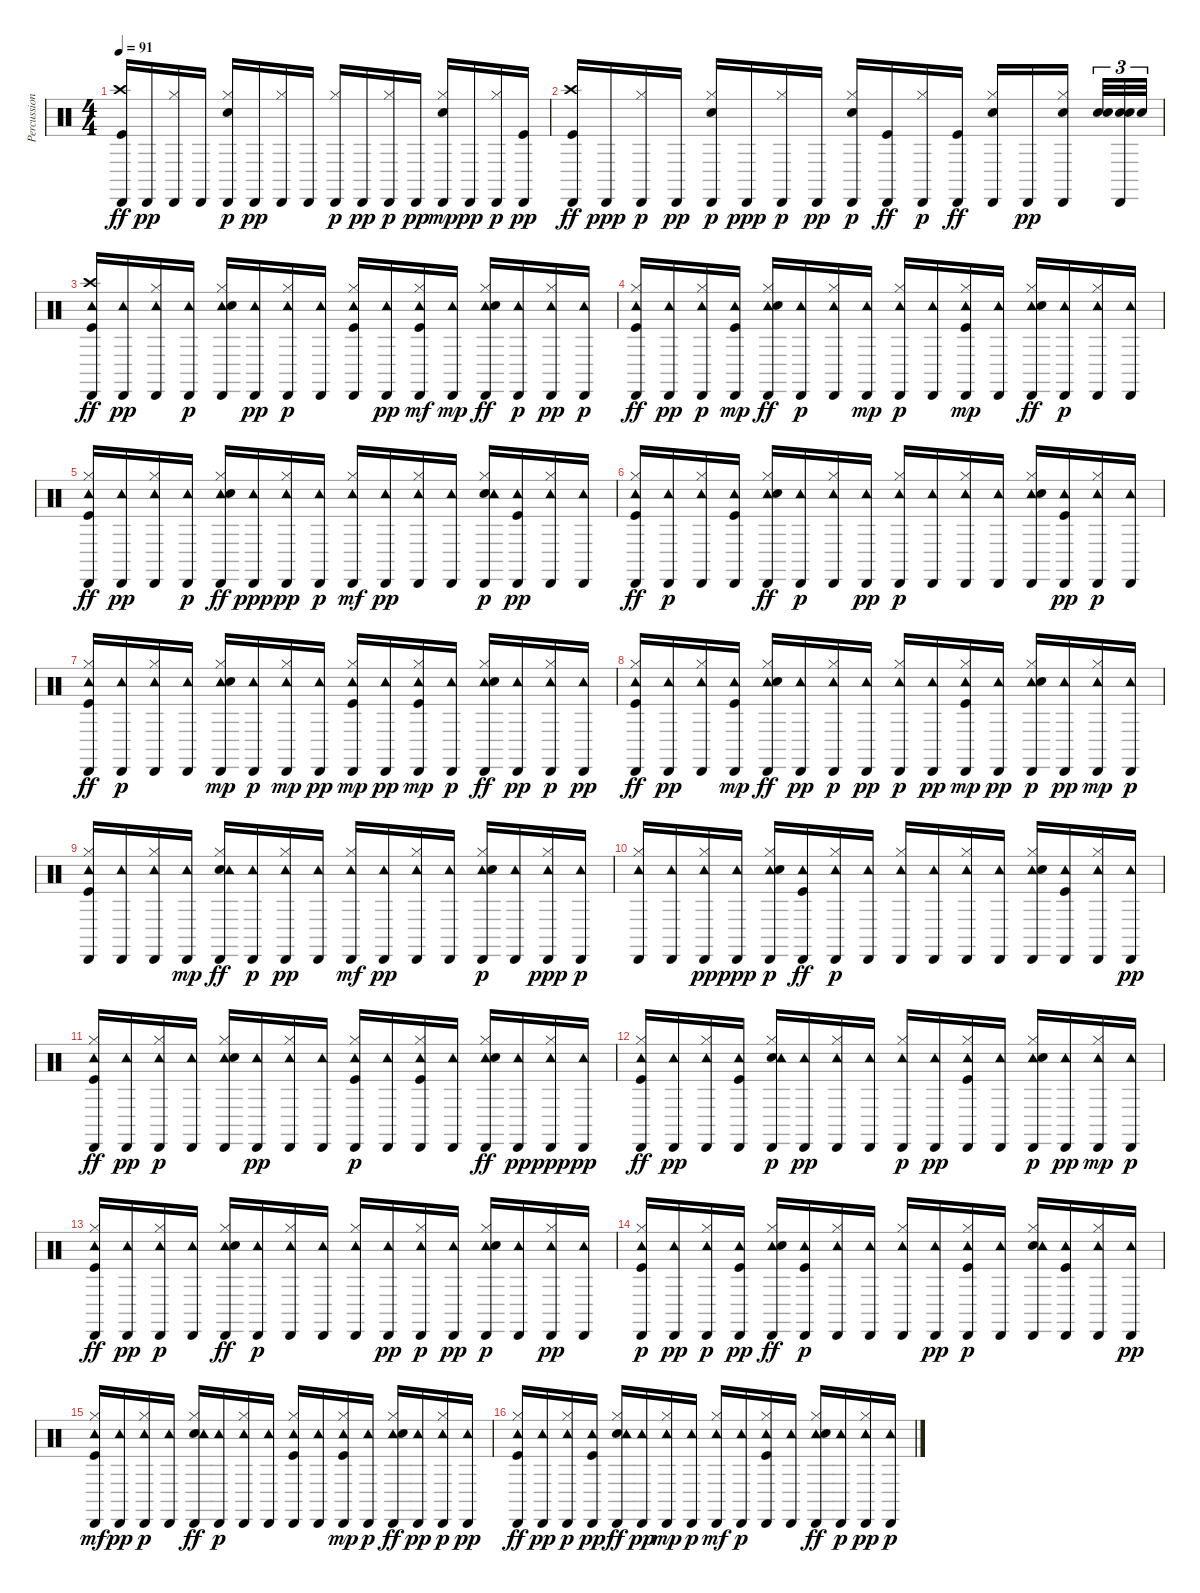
\track ("Percussion" "Percussion") {instrument percussion}
\staff {score}
\articulation defaults
\ts (4 4)
\tempo 91
\clef neutral
\ks c
("Crash high (hit)" "Cabasa (hit)" "Kick (hit)").16{dy ff} "Cabasa (hit)".16{dy pp} ("Cabasa (hit)" "Hi-Hat (closed)").16 "Cabasa (hit)".16 ("Snare (hit) 2" "Cabasa (hit)" "Hi-Hat (closed)").16{dy p} "Cabasa (hit)".16{dy pp} ("Cabasa (hit)" "Hi-Hat (closed)").16 "Cabasa (hit)".16 ("Cabasa (hit)" "Hi-Hat (closed)").16{dy p} "Cabasa (hit)".16{dy pp} ("Cabasa (hit)" "Hi-Hat (closed)").16{dy p} "Cabasa (hit)".16{dy pp} ("Cabasa (hit)" "Hi-Hat (closed)" "Snare (hit) 2").16{dy mp} "Cabasa (hit)".16{dy pp} ("Cabasa (hit)" "Hi-Hat (closed)").16{dy p} ("Cabasa (hit)" "Kick (hit)").16{dy pp} |
("Cabasa (hit)" "Crash high (hit)" "Kick (hit)").16{dy ff} "Cabasa (hit)".16{dy ppp} ("Cabasa (hit)" "Hi-Hat (closed)").16{dy p} "Cabasa (hit)".16{dy pp} ("Cabasa (hit)" "Hi-Hat (closed)" "Snare (hit) 2").16{dy p} "Cabasa (hit)".16{dy ppp} ("Cabasa (hit)" "Hi-Hat (closed)").16{dy p} "Cabasa (hit)".16{dy pp} ("Cabasa (hit)" "Hi-Hat (closed)" "Snare (hit) 2").16{dy p} ("Cabasa (hit)" "Kick (hit)").16{dy ff} ("Cabasa (hit)" "Hi-Hat (closed)").16{dy p} ("Cabasa (hit)" "Kick (hit)").16{dy ff} ("Cabasa (hit)" "Hi-Hat (closed)" "Snare (hit) 2").16 "Cabasa (hit)".16{dy pp} ("Cabasa (hit)" "Hi-Hat (closed)" "Snare (hit) 2").16{beam splitsecondary} ("Snare (hit) 2" "Snare (hit) 2").32{tu (3 2)} ("Snare (hit) 2" "Cabasa (hit)" "Snare (hit) 2").32{tu (3 2)} "Snare (hit) 2".32{tu (3 2)} |
("Cabasa (hit)" "Tambourine (hit)" "Crash high (hit)" "Kick (hit)").16{dy ff} ("Tambourine (hit)" "Cabasa (hit)").16{dy pp} ("Cabasa (hit)" "Hi-Hat (closed)" "Tambourine (hit)").16 ("Cabasa (hit)" "Tambourine (hit)").16{dy p} ("Cabasa (hit)" "Tambourine (hit)" "Snare (hit) 2" "Hi-Hat (closed)").16 ("Cabasa (hit)" "Tambourine (hit)").16{dy pp} ("Cabasa (hit)" "Tambourine (hit)" "Hi-Hat (closed)").16{dy p} ("Cabasa (hit)" "Tambourine (hit)").16 ("Cabasa (hit)" "Tambourine (hit)" "Kick (hit)" "Hi-Hat (closed)").16 ("Cabasa (hit)" "Tambourine (hit)").16{dy pp} ("Cabasa (hit)" "Tambourine (hit)" "Hi-Hat (closed)" "Kick (hit)").16{dy mf} ("Cabasa (hit)" "Tambourine (hit)").16{dy mp} ("Cabasa (hit)" "Hi-Hat (closed)" "Tambourine (hit)" "Snare (hit) 2").16{dy ff} ("Cabasa (hit)" "Tambourine (hit)").16{dy p} ("Cabasa (hit)" "Hi-Hat (closed)" "Tambourine (hit)").16{dy pp} ("Cabasa (hit)" "Tambourine (hit)").16{dy p} |
("Cabasa (hit)" "Tambourine (hit)" "Hi-Hat (closed)" "Kick (hit)").16{dy ff} ("Cabasa (hit)" "Tambourine (hit)").16{dy pp} ("Hi-Hat (closed)" "Cabasa (hit)" "Tambourine (hit)").16{dy p} ("Kick (hit)" "Cabasa (hit)" "Tambourine (hit)").16{dy mp} ("Hi-Hat (closed)" "Cabasa (hit)" "Tambourine (hit)" "Snare (hit) 2").16{dy ff} ("Cabasa (hit)" "Tambourine (hit)").16{dy p} ("Cabasa (hit)" "Tambourine (hit)" "Hi-Hat (closed)").16 ("Cabasa (hit)" "Tambourine (hit)").16{dy mp} ("Cabasa (hit)" "Tambourine (hit)" "Hi-Hat (closed)").16{dy p} ("Cabasa (hit)" "Tambourine (hit)").16 ("Hi-Hat (closed)" "Kick (hit)" "Cabasa (hit)" "Tambourine (hit)").16{dy mp} ("Cabasa (hit)" "Tambourine (hit)").16 ("Cabasa (hit)" "Hi-Hat (closed)" "Tambourine (hit)" "Snare (hit) 2").16{dy ff} ("Cabasa (hit)" "Tambourine (hit)").16{dy p} ("Cabasa (hit)" "Tambourine (hit)" "Hi-Hat (closed)").16 ("Cabasa (hit)" "Tambourine (hit)").16 |
("Hi-Hat (closed)" "Cabasa (hit)" "Tambourine (hit)" "Kick (hit)").16{dy ff} ("Tambourine (hit)" "Cabasa (hit)").16{dy pp} ("Cabasa (hit)" "Tambourine (hit)" "Hi-Hat (closed)").16 ("Cabasa (hit)" "Tambourine (hit)").16{dy p} ("Hi-Hat (closed)" "Cabasa (hit)" "Tambourine (hit)" "Snare (hit) 2").16{dy ff} ("Tambourine (hit)" "Cabasa (hit)").16{dy ppp} ("Cabasa (hit)" "Tambourine (hit)" "Hi-Hat (closed)").16{dy pp} ("Cabasa (hit)" "Tambourine (hit)").16{dy p} ("Hi-Hat (closed)" "Cabasa (hit)" "Tambourine (hit)").16{dy mf} ("Tambourine (hit)" "Cabasa (hit)").16{dy pp} ("Cabasa (hit)" "Tambourine (hit)" "Hi-Hat (closed)").16 ("Tambourine (hit)" "Cabasa (hit)").16 ("Snare (hit) 2" "Cabasa (hit)" "Tambourine (hit)" "Hi-Hat (closed)").16{dy p} ("Kick (hit)" "Tambourine (hit)" "Cabasa (hit)").16{dy pp} ("Tambourine (hit)" "Hi-Hat (closed)" "Cabasa (hit)").16 ("Tambourine (hit)" "Cabasa (hit)").16 |
("Cabasa (hit)" "Tambourine (hit)" "Hi-Hat (closed)" "Kick (hit)").16{dy ff} ("Cabasa (hit)" "Tambourine (hit)").16{dy p} ("Hi-Hat (closed)" "Cabasa (hit)" "Tambourine (hit)").16 ("Cabasa (hit)" "Kick (hit)" "Tambourine (hit)").16 ("Hi-Hat (closed)" "Cabasa (hit)" "Tambourine (hit)" "Snare (hit) 2").16{dy ff} ("Cabasa (hit)" "Tambourine (hit)").16{dy p} ("Cabasa (hit)" "Tambourine (hit)" "Hi-Hat (closed)").16 ("Cabasa (hit)" "Tambourine (hit)").16{dy pp} ("Cabasa (hit)" "Tambourine (hit)" "Hi-Hat (closed)").16{dy p} ("Cabasa (hit)" "Tambourine (hit)").16 ("Cabasa (hit)" "Tambourine (hit)" "Hi-Hat (closed)").16 ("Cabasa (hit)" "Tambourine (hit)").16 ("Cabasa (hit)" "Tambourine (hit)" "Snare (hit) 2" "Hi-Hat (closed)").16 ("Cabasa (hit)" "Kick (hit)" "Tambourine (hit)").16{dy pp} ("Cabasa (hit)" "Tambourine (hit)" "Hi-Hat (closed)").16{dy p} ("Cabasa (hit)" "Tambourine (hit)").16 |
("Cabasa (hit)" "Tambourine (hit)" "Hi-Hat (closed)" "Kick (hit)").16{dy ff} ("Cabasa (hit)" "Tambourine (hit)").16{dy p} ("Cabasa (hit)" "Tambourine (hit)" "Hi-Hat (closed)").16 ("Cabasa (hit)" "Tambourine (hit)").16 ("Cabasa (hit)" "Tambourine (hit)" "Hi-Hat (closed)" "Snare (hit) 2").16{dy mp} ("Cabasa (hit)" "Tambourine (hit)").16{dy p} ("Hi-Hat (closed)" "Cabasa (hit)" "Tambourine (hit)").16{dy mp} ("Tambourine (hit)" "Cabasa (hit)").16{dy pp} ("Hi-Hat (closed)" "Cabasa (hit)" "Kick (hit)" "Tambourine (hit)").16{dy mp} ("Cabasa (hit)" "Tambourine (hit)").16{dy pp} ("Hi-Hat (closed)" "Cabasa (hit)" "Kick (hit)" "Tambourine (hit)").16{dy mp} ("Cabasa (hit)" "Tambourine (hit)").16{dy p} ("Hi-Hat (closed)" "Cabasa (hit)" "Tambourine (hit)" "Snare (hit) 2").16{dy ff} ("Tambourine (hit)" "Cabasa (hit)").16{dy pp} ("Hi-Hat (closed)" "Cabasa (hit)" "Tambourine (hit)").16{dy p} ("Tambourine (hit)" "Cabasa (hit)").16{dy pp} |
("Cabasa (hit)" "Tambourine (hit)" "Hi-Hat (closed)" "Kick (hit)").16{dy ff} ("Tambourine (hit)" "Cabasa (hit)").16{dy pp} ("Tambourine (hit)" "Hi-Hat (closed)" "Cabasa (hit)").16 ("Kick (hit)" "Cabasa (hit)" "Tambourine (hit)").16{dy mp} ("Hi-Hat (closed)" "Cabasa (hit)" "Tambourine (hit)" "Snare (hit) 2").16{dy ff} ("Tambourine (hit)" "Cabasa (hit)").16{dy pp} ("Cabasa (hit)" "Tambourine (hit)" "Hi-Hat (closed)").16{dy p} ("Tambourine (hit)" "Cabasa (hit)").16{dy pp} ("Cabasa (hit)" "Tambourine (hit)" "Hi-Hat (closed)").16{dy p} ("Tambourine (hit)" "Cabasa (hit)").16{dy pp} ("Hi-Hat (closed)" "Kick (hit)" "Cabasa (hit)" "Tambourine (hit)").16{dy mp} ("Tambourine (hit)" "Cabasa (hit)").16{dy pp} ("Cabasa (hit)" "Tambourine (hit)" "Hi-Hat (closed)" "Snare (hit) 2").16{dy p} ("Tambourine (hit)" "Cabasa (hit)").16{dy pp} ("Hi-Hat (closed)" "Cabasa (hit)" "Tambourine (hit)").16{dy mp} ("Cabasa (hit)" "Tambourine (hit)").16{dy p} |
("Hi-Hat (closed)" "Kick (hit)" "Tambourine (hit)" "Cabasa (hit)").16 ("Cabasa (hit)" "Tambourine (hit)").16 ("Cabasa (hit)" "Hi-Hat (closed)" "Tambourine (hit)").16 ("Cabasa (hit)" "Tambourine (hit)").16{dy mp} ("Cabasa (hit)" "Hi-Hat (closed)" "Snare (hit) 2" "Tambourine (hit)").16{dy ff} ("Cabasa (hit)" "Tambourine (hit)").16{dy p} ("Hi-Hat (closed)" "Tambourine (hit)" "Cabasa (hit)").16{dy pp} ("Tambourine (hit)" "Cabasa (hit)").16 ("Hi-Hat (closed)" "Cabasa (hit)" "Tambourine (hit)").16{dy mf} ("Tambourine (hit)" "Cabasa (hit)").16{dy pp} ("Tambourine (hit)" "Hi-Hat (closed)" "Cabasa (hit)").16 ("Tambourine (hit)" "Cabasa (hit)").16 ("Tambourine (hit)" "Hi-Hat (closed)" "Snare (hit) 2" "Cabasa (hit)").16{dy p} ("Cabasa (hit)" "Tambourine (hit)").16 ("Hi-Hat (closed)" "Tambourine (hit)" "Cabasa (hit)").16{dy ppp} ("Cabasa (hit)" "Tambourine (hit)").16{dy p} |
("Cabasa (hit)" "Tambourine (hit)" "Hi-Hat (closed)").16 ("Cabasa (hit)" "Tambourine (hit)").16 ("Tambourine (hit)" "Cabasa (hit)" "Hi-Hat (closed)").16{dy pp} ("Tambourine (hit)" "Cabasa (hit)").16{dy ppp} ("Cabasa (hit)" "Tambourine (hit)" "Hi-Hat (closed)" "Snare (hit) 2").16{dy p} ("Cabasa (hit)" "Tambourine (hit)" "Kick (hit)").16{dy ff} ("Hi-Hat (closed)" "Cabasa (hit)" "Tambourine (hit)").16{dy p} ("Cabasa (hit)" "Tambourine (hit)").16 ("Cabasa (hit)" "Tambourine (hit)" "Hi-Hat (closed)").16 ("Cabasa (hit)" "Tambourine (hit)").16 ("Cabasa (hit)" "Tambourine (hit)" "Hi-Hat (closed)").16 ("Cabasa (hit)" "Tambourine (hit)").16 ("Cabasa (hit)" "Tambourine (hit)" "Hi-Hat (closed)" "Snare (hit) 2").16 ("Kick (hit)" "Cabasa (hit)" "Tambourine (hit)").16 ("Cabasa (hit)" "Tambourine (hit)" "Hi-Hat (closed)").16 ("Tambourine (hit)" "Cabasa (hit)").16{dy pp} |
("Cabasa (hit)" "Tambourine (hit)" "Hi-Hat (closed)" "Kick (hit)").16{dy ff} ("Tambourine (hit)" "Cabasa (hit)").16{dy pp} ("Tambourine (hit)" "Cabasa (hit)" "Hi-Hat (closed)").16{dy p} ("Cabasa (hit)" "Tambourine (hit)").16 ("Cabasa (hit)" "Tambourine (hit)" "Snare (hit) 2" "Hi-Hat (closed)").16 ("Cabasa (hit)" "Tambourine (hit)").16{dy pp} ("Tambourine (hit)" "Hi-Hat (closed)" "Cabasa (hit)").16 ("Tambourine (hit)" "Cabasa (hit)").16 ("Tambourine (hit)" "Hi-Hat (closed)" "Kick (hit)" "Cabasa (hit)").16{dy p} ("Cabasa (hit)" "Tambourine (hit)").16 ("Cabasa (hit)" "Tambourine (hit)" "Hi-Hat (closed)" "Kick (hit)").16 ("Cabasa (hit)" "Tambourine (hit)").16 ("Hi-Hat (closed)" "Cabasa (hit)" "Tambourine (hit)" "Snare (hit) 2").16{dy ff} ("Cabasa (hit)" "Tambourine (hit)").16{dy pp} ("Hi-Hat (closed)" "Tambourine (hit)" "Cabasa (hit)").16{dy ppp} ("Tambourine (hit)" "Cabasa (hit)").16{dy pp} |
("Hi-Hat (closed)" "Cabasa (hit)" "Tambourine (hit)" "Kick (hit)").16{dy ff} ("Tambourine (hit)" "Cabasa (hit)").16{dy pp} ("Tambourine (hit)" "Hi-Hat (closed)" "Cabasa (hit)").16 ("Kick (hit)" "Tambourine (hit)" "Cabasa (hit)").16 ("Snare (hit) 2" "Tambourine (hit)" "Hi-Hat (closed)" "Cabasa (hit)").16{dy p} ("Tambourine (hit)" "Cabasa (hit)").16{dy pp} ("Hi-Hat (closed)" "Tambourine (hit)" "Cabasa (hit)").16 ("Tambourine (hit)" "Cabasa (hit)").16 ("Tambourine (hit)" "Hi-Hat (closed)" "Cabasa (hit)").16{dy p} ("Tambourine (hit)" "Cabasa (hit)").16{dy pp} ("Tambourine (hit)" "Hi-Hat (closed)" "Kick (hit)" "Cabasa (hit)").16 ("Tambourine (hit)" "Cabasa (hit)").16 ("Cabasa (hit)" "Tambourine (hit)" "Hi-Hat (closed)" "Snare (hit) 2").16{dy p} ("Cabasa (hit)" "Tambourine (hit)").16{dy pp} ("Hi-Hat (closed)" "Cabasa (hit)" "Tambourine (hit)").16{dy mp} ("Cabasa (hit)" "Tambourine (hit)").16{dy p} |
("Hi-Hat (closed)" "Cabasa (hit)" "Tambourine (hit)" "Kick (hit)").16{dy ff} ("Tambourine (hit)" "Cabasa (hit)").16{dy pp} ("Cabasa (hit)" "Tambourine (hit)" "Hi-Hat (closed)").16{dy p} ("Cabasa (hit)" "Tambourine (hit)").16 ("Hi-Hat (closed)" "Cabasa (hit)" "Tambourine (hit)" "Snare (hit) 2").16{dy ff} ("Cabasa (hit)" "Tambourine (hit)").16{dy p} ("Cabasa (hit)" "Tambourine (hit)" "Hi-Hat (closed)").16 ("Cabasa (hit)" "Tambourine (hit)").16 ("Cabasa (hit)" "Tambourine (hit)" "Hi-Hat (closed)").16 ("Cabasa (hit)" "Tambourine (hit)").16{dy pp} ("Cabasa (hit)" "Tambourine (hit)" "Hi-Hat (closed)").16{dy p} ("Tambourine (hit)" "Cabasa (hit)").16{dy pp} ("Cabasa (hit)" "Tambourine (hit)" "Hi-Hat (closed)" "Snare (hit) 2").16{dy p} ("Cabasa (hit)" "Tambourine (hit)").16 ("Tambourine (hit)" "Hi-Hat (closed)" "Cabasa (hit)").16{dy pp} ("Tambourine (hit)" "Cabasa (hit)").16 |
("Hi-Hat (closed)" "Tambourine (hit)" "Kick (hit)" "Cabasa (hit)").16{dy p} ("Tambourine (hit)" "Cabasa (hit)").16{dy pp} ("Hi-Hat (closed)" "Cabasa (hit)" "Tambourine (hit)").16{dy p} ("Tambourine (hit)" "Kick (hit)" "Cabasa (hit)").16{dy pp} ("Hi-Hat (closed)" "Cabasa (hit)" "Tambourine (hit)" "Snare (hit) 2").16{dy ff} ("Kick (hit)" "Cabasa (hit)" "Tambourine (hit)").16{dy p} ("Cabasa (hit)" "Tambourine (hit)" "Hi-Hat (closed)").16 ("Cabasa (hit)" "Tambourine (hit)").16 ("Cabasa (hit)" "Tambourine (hit)" "Hi-Hat (closed)").16 ("Cabasa (hit)" "Tambourine (hit)").16{dy pp} ("Cabasa (hit)" "Kick (hit)" "Tambourine (hit)" "Hi-Hat (closed)").16{dy p} ("Cabasa (hit)" "Tambourine (hit)").16 ("Snare (hit) 2" "Cabasa (hit)" "Tambourine (hit)" "Hi-Hat (closed)").16 ("Kick (hit)" "Cabasa (hit)" "Tambourine (hit)").16 ("Cabasa (hit)" "Tambourine (hit)" "Hi-Hat (closed)").16 ("Tambourine (hit)" "Cabasa (hit)").16{dy pp} |
("Hi-Hat (closed)" "Kick (hit)" "Cabasa (hit)" "Tambourine (hit)").16{dy mf} ("Tambourine (hit)" "Cabasa (hit)").16{dy pp} ("Cabasa (hit)" "Tambourine (hit)" "Hi-Hat (closed)").16{dy p} ("Cabasa (hit)" "Tambourine (hit)").16 ("Cabasa (hit)" "Hi-Hat (closed)" "Snare (hit) 2" "Tambourine (hit)").16{dy ff} ("Cabasa (hit)" "Tambourine (hit)").16{dy p} ("Cabasa (hit)" "Tambourine (hit)" "Hi-Hat (closed)").16 ("Cabasa (hit)" "Tambourine (hit)").16 ("Kick (hit)" "Cabasa (hit)" "Tambourine (hit)" "Hi-Hat (closed)").16 ("Cabasa (hit)" "Tambourine (hit)").16 ("Hi-Hat (closed)" "Cabasa (hit)" "Tambourine (hit)" "Kick (hit)").16{dy mp} ("Cabasa (hit)" "Tambourine (hit)").16{dy p} ("Hi-Hat (closed)" "Cabasa (hit)" "Tambourine (hit)" "Snare (hit) 2").16{dy ff} ("Tambourine (hit)" "Cabasa (hit)").16{dy pp} ("Cabasa (hit)" "Tambourine (hit)" "Hi-Hat (closed)").16{dy p} ("Tambourine (hit)" "Cabasa (hit)").16{dy pp} |
("Cabasa (hit)" "Tambourine (hit)" "Hi-Hat (closed)" "Kick (hit)").16{dy ff} ("Tambourine (hit)" "Cabasa (hit)").16{dy pp} ("Cabasa (hit)" "Tambourine (hit)" "Hi-Hat (closed)").16{dy p} ("Kick (hit)" "Tambourine (hit)" "Cabasa (hit)").16{dy pp} ("Hi-Hat (closed)" "Snare (hit) 2" "Cabasa (hit)" "Tambourine (hit)").16{dy ff} ("Tambourine (hit)" "Cabasa (hit)").16{dy pp} ("Cabasa (hit)" "Hi-Hat (closed)" "Tambourine (hit)").16{dy mp} ("Cabasa (hit)" "Tambourine (hit)").16{dy p} ("Hi-Hat (closed)" "Cabasa (hit)" "Tambourine (hit)").16{dy mf} ("Cabasa (hit)" "Tambourine (hit)").16{dy p} ("Cabasa (hit)" "Kick (hit)" "Tambourine (hit)" "Hi-Hat (closed)").16 ("Cabasa (hit)" "Tambourine (hit)").16 ("Cabasa (hit)" "Hi-Hat (closed)" "Tambourine (hit)" "Snare (hit) 2").16{dy ff} ("Cabasa (hit)" "Tambourine (hit)").16{dy p} ("Tambourine (hit)" "Hi-Hat (closed)" "Cabasa (hit)").16{dy pp} ("Cabasa (hit)" "Tambourine (hit)").16{dy p}
